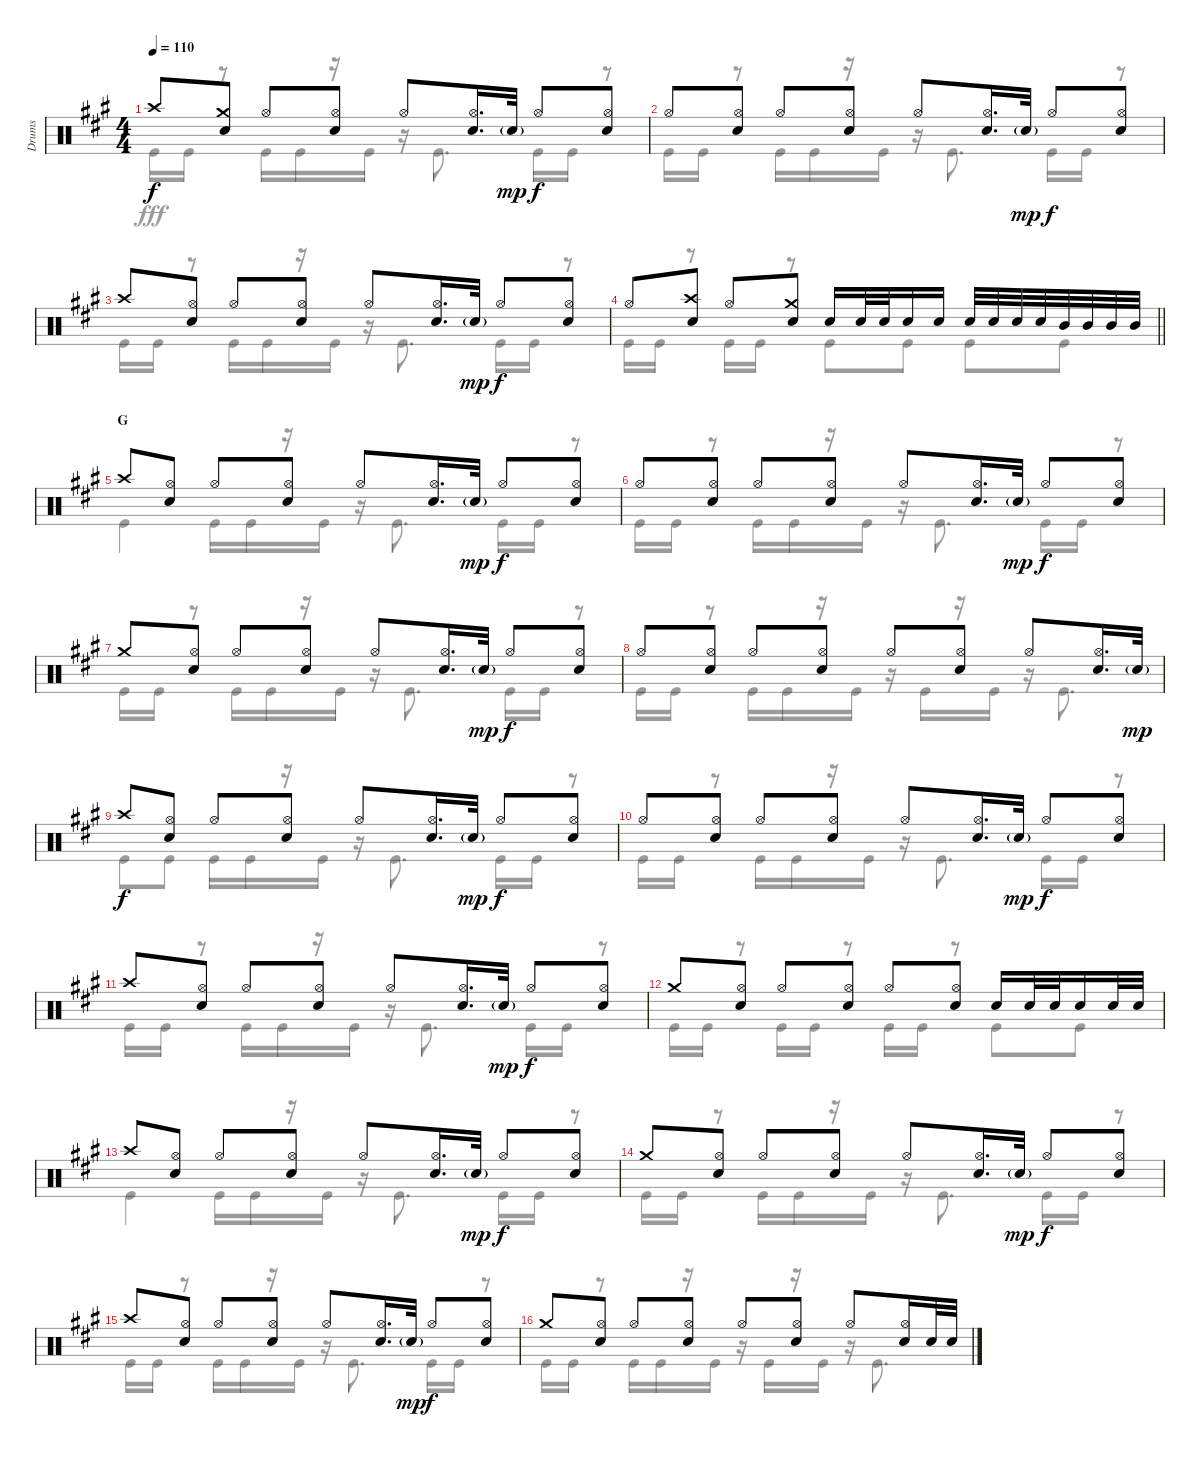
\track ("Drums" "Drums") {instrument percussion}
\staff {score}
\articulation defaults
\voice
\ts (4 4)
\tempo 110
\clef neutral
\ks a "Crash high (hit)".8{dy f}
("Crash medium (hit)" "Snare (hit) 2").8 "Hi-Hat (open)".8 ("Hi-Hat (open)" "Snare (hit) 2").8 "Hi-Hat (open)".8 ("Hi-Hat (open)" "Snare (hit) 2").16{d} "Snare (hit) 2"{g}.32{dy mp} "Hi-Hat (open)".8{dy f} ("Hi-Hat (open)" "Snare (hit) 2").8 |
"Hi-Hat (open)".8 ("Hi-Hat (open)" "Snare (hit) 2").8 "Hi-Hat (open)".8 ("Hi-Hat (open)" "Snare (hit) 2").8 "Hi-Hat (open)".8 ("Hi-Hat (open)" "Snare (hit) 2").16{d} "Snare (hit) 2"{g}.32{dy mp} "Hi-Hat (open)".8{dy f} ("Hi-Hat (open)" "Snare (hit) 2").8 |
"Crash high (hit)".8 ("Hi-Hat (open)" "Snare (hit) 2").8 "Hi-Hat (open)".8 ("Hi-Hat (open)" "Snare (hit) 2").8 "Hi-Hat (open)".8 ("Hi-Hat (open)" "Snare (hit) 2").16{d} "Snare (hit) 2"{g}.32{dy mp} "Hi-Hat (open)".8{dy f} ("Hi-Hat (open)" "Snare (hit) 2").8 |
\barLineRight lightlight "Hi-Hat (open)".8
("Crash high (hit)" "Snare (hit) 2").8 "Hi-Hat (open)".8 ("Crash medium (hit)" "Snare (hit) 2").8 "Snare (hit) 2".16 "Snare (hit) 2".32 "Snare (hit) 2".32 "Snare (hit) 2".16 "Snare (hit) 2".16 "Snare (hit) 2".32 "Snare (hit) 2".32 "Snare (hit) 2".32 "Snare (hit) 2".32 "Mid Tom (hit)".32 "Mid Tom (hit)".32 "Mid Tom (hit)".32 "Mid Tom (hit)".32 |
\section ("" "G")
"Crash high (hit)".8 ("Hi-Hat (open)" "Snare (hit) 2").8 "Hi-Hat (open)".8 ("Hi-Hat (open)" "Snare (hit) 2").8 "Hi-Hat (open)".8 ("Hi-Hat (open)" "Snare (hit) 2").16{d} "Snare (hit) 2"{g}.32{dy mp} "Hi-Hat (open)".8{dy f} ("Hi-Hat (open)" "Snare (hit) 2").8 |
"Hi-Hat (open)".8 ("Hi-Hat (open)" "Snare (hit) 2").8 "Hi-Hat (open)".8 ("Hi-Hat (open)" "Snare (hit) 2").8 "Hi-Hat (open)".8 ("Hi-Hat (open)" "Snare (hit) 2").16{d} "Snare (hit) 2"{g}.32{dy mp} "Hi-Hat (open)".8{dy f} ("Hi-Hat (open)" "Snare (hit) 2").8 |
"Crash medium (hit)".8 ("Hi-Hat (open)" "Snare (hit) 2").8 "Hi-Hat (open)".8 ("Hi-Hat (open)" "Snare (hit) 2").8 "Hi-Hat (open)".8 ("Hi-Hat (open)" "Snare (hit) 2").16{d} "Snare (hit) 2"{g}.32{dy mp} "Hi-Hat (open)".8{dy f} ("Hi-Hat (open)" "Snare (hit) 2").8 |
"Hi-Hat (open)".8 ("Hi-Hat (open)" "Snare (hit) 2").8 "Hi-Hat (open)".8 ("Hi-Hat (open)" "Snare (hit) 2").8 "Hi-Hat (open)".8 ("Hi-Hat (open)" "Snare (hit) 2").8 "Hi-Hat (open)".8 ("Hi-Hat (open)" "Snare (hit) 2").16{d} "Snare (hit) 2"{g}.32{dy mp} |
"Crash high (hit)".8{dy f} ("Hi-Hat (open)" "Snare (hit) 2").8 "Hi-Hat (open)".8 ("Hi-Hat (open)" "Snare (hit) 2").8 "Hi-Hat (open)".8 ("Hi-Hat (open)" "Snare (hit) 2").16{d} "Snare (hit) 2"{g}.32{dy mp} "Hi-Hat (open)".8{dy f} ("Hi-Hat (open)" "Snare (hit) 2").8 |
"Hi-Hat (open)".8 ("Hi-Hat (open)" "Snare (hit) 2").8 "Hi-Hat (open)".8 ("Hi-Hat (open)" "Snare (hit) 2").8 "Hi-Hat (open)".8 ("Hi-Hat (open)" "Snare (hit) 2").16{d} "Snare (hit) 2"{g}.32{dy mp} "Hi-Hat (open)".8{dy f} ("Hi-Hat (open)" "Snare (hit) 2").8 |
"Crash high (hit)".8 ("Hi-Hat (open)" "Snare (hit) 2").8 "Hi-Hat (open)".8 ("Hi-Hat (open)" "Snare (hit) 2").8 "Hi-Hat (open)".8 ("Hi-Hat (open)" "Snare (hit) 2").16{d} "Snare (hit) 2"{g}.32{dy mp} "Hi-Hat (open)".8{dy f} ("Hi-Hat (open)" "Snare (hit) 2").8 |
"Crash medium (hit)".8 ("Hi-Hat (open)" "Snare (hit) 2").8 "Hi-Hat (open)".8 ("Hi-Hat (open)" "Snare (hit) 2").8 "Hi-Hat (open)".8 ("Hi-Hat (open)" "Snare (hit) 2").8 "Snare (hit) 2".16 "Snare (hit) 2".32 "Snare (hit) 2".32 "Snare (hit) 2".16 "Snare (hit) 2".32 "Snare (hit) 2".32 |
"Crash high (hit)".8 ("Hi-Hat (open)" "Snare (hit) 2").8 "Hi-Hat (open)".8 ("Hi-Hat (open)" "Snare (hit) 2").8 "Hi-Hat (open)".8 ("Hi-Hat (open)" "Snare (hit) 2").16{d} "Snare (hit) 2"{g}.32{dy mp} "Hi-Hat (open)".8{dy f} ("Hi-Hat (open)" "Snare (hit) 2").8 |
"Crash medium (hit)".8 ("Hi-Hat (open)" "Snare (hit) 2").8 "Hi-Hat (open)".8 ("Hi-Hat (open)" "Snare (hit) 2").8 "Hi-Hat (open)".8 ("Hi-Hat (open)" "Snare (hit) 2").16{d} "Snare (hit) 2"{g}.32{dy mp} "Hi-Hat (open)".8{dy f} ("Hi-Hat (open)" "Snare (hit) 2").8 |
"Crash high (hit)".8 ("Hi-Hat (open)" "Snare (hit) 2").8 "Hi-Hat (open)".8 ("Hi-Hat (open)" "Snare (hit) 2").8 "Hi-Hat (open)".8 ("Hi-Hat (open)" "Snare (hit) 2").16{d} "Snare (hit) 2"{g}.32{dy mp} "Hi-Hat (open)".8{dy f} ("Hi-Hat (open)" "Snare (hit) 2").8 |
"Crash medium (hit)".8 ("Hi-Hat (open)" "Snare (hit) 2").8 "Hi-Hat (open)".8 ("Hi-Hat (open)" "Snare (hit) 2").8 "Hi-Hat (open)".8 ("Hi-Hat (open)" "Snare (hit) 2").8 "Hi-Hat (open)".8 ("Hi-Hat (open)" "Snare (hit) 2").16 "Snare (hit) 2".32 "Snare (hit) 2".32
\voice
\clef neutral
\ottava regular
\simile none
\ks a "Kick (hit)".16{dy fff} "Kick (hit)".16
r.8 "Kick (hit)".16 "Kick (hit)".16 r.16 "Kick (hit)".16 r.16 "Kick (hit)".8{d} "Kick (hit)".16 "Kick (hit)".16 r.8 |
"Kick (hit)".16 "Kick (hit)".16 r.8 "Kick (hit)".16 "Kick (hit)".16 r.16 "Kick (hit)".16 r.16 "Kick (hit)".8{d} "Kick (hit)".16 "Kick (hit)".16 r.8 |
"Kick (hit)".16 "Kick (hit)".16 r.8 "Kick (hit)".16 "Kick (hit)".16 r.16 "Kick (hit)".16 r.16 "Kick (hit)".8{d} "Kick (hit)".16 "Kick (hit)".16 r.8 |
\barLineRight lightlight "Kick (hit)".16 "Kick (hit)".16
r.8 "Kick (hit)".16 "Kick (hit)".16 r.8 "Kick (hit)".8 "Kick (hit)".8 "Kick (hit)".8 "Kick (hit)".8 |
"Kick (hit)".4 "Kick (hit)".16 "Kick (hit)".16 r.16 "Kick (hit)".16 r.16 "Kick (hit)".8{d} "Kick (hit)".16 "Kick (hit)".16 r.8 |
"Kick (hit)".16 "Kick (hit)".16 r.8 "Kick (hit)".16 "Kick (hit)".16 r.16 "Kick (hit)".16 r.16 "Kick (hit)".8{d} "Kick (hit)".16 "Kick (hit)".16 r.8 |
"Kick (hit)".16 "Kick (hit)".16 r.8 "Kick (hit)".16 "Kick (hit)".16 r.16 "Kick (hit)".16 r.16 "Kick (hit)".8{d} "Kick (hit)".16 "Kick (hit)".16 r.8 |
"Kick (hit)".16 "Kick (hit)".16 r.8 "Kick (hit)".16 "Kick (hit)".16 r.16 "Kick (hit)".16 r.16 "Kick (hit)".16 r.16 "Kick (hit)".16 r.16 "Kick (hit)".8{d} |
"Kick (hit)".8 "Kick (hit)".8 "Kick (hit)".16 "Kick (hit)".16 r.16 "Kick (hit)".16 r.16 "Kick (hit)".8{d} "Kick (hit)".16 "Kick (hit)".16 r.8 |
"Kick (hit)".16 "Kick (hit)".16 r.8 "Kick (hit)".16 "Kick (hit)".16 r.16 "Kick (hit)".16 r.16 "Kick (hit)".8{d} "Kick (hit)".16 "Kick (hit)".16 r.8 |
"Kick (hit)".16 "Kick (hit)".16 r.8 "Kick (hit)".16 "Kick (hit)".16 r.16 "Kick (hit)".16 r.16 "Kick (hit)".8{d} "Kick (hit)".16 "Kick (hit)".16 r.8 |
"Kick (hit)".16 "Kick (hit)".16 r.8 "Kick (hit)".16 "Kick (hit)".16 r.8 "Kick (hit)".16 "Kick (hit)".16 r.8 "Kick (hit)".8 "Kick (hit)".8 |
"Kick (hit)".4 "Kick (hit)".16 "Kick (hit)".16 r.16 "Kick (hit)".16 r.16 "Kick (hit)".8{d} "Kick (hit)".16 "Kick (hit)".16 r.8 |
"Kick (hit)".16 "Kick (hit)".16 r.8 "Kick (hit)".16 "Kick (hit)".16 r.16 "Kick (hit)".16 r.16 "Kick (hit)".8{d} "Kick (hit)".16 "Kick (hit)".16 r.8 |
"Kick (hit)".16 "Kick (hit)".16 r.8 "Kick (hit)".16 "Kick (hit)".16 r.16 "Kick (hit)".16 r.16 "Kick (hit)".8{d} "Kick (hit)".16 "Kick (hit)".16 r.8 |
"Kick (hit)".16 "Kick (hit)".16 r.8 "Kick (hit)".16 "Kick (hit)".16 r.16 "Kick (hit)".16 r.16 "Kick (hit)".16 r.16 "Kick (hit)".16 r.16 "Kick (hit)".8{d}
